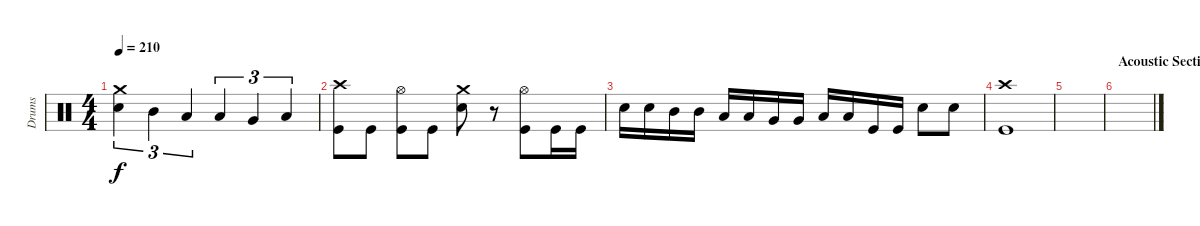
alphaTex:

\track ("Drums" "Drums") {instrument percussion}
\staff {score}
\articulation defaults
\ts (4 4)
\tempo 210
\clef neutral
\ks c
("Crash medium (hit)" "Snare (hit) 2").4{tu (3 2) dy f} "Mid Tom (hit)".4{tu (3 2)} "Low Tom (hit)".4{tu (3 2)} "Low Tom (hit)".4{tu (3 2)} "Very Low Tom (hit)".4{tu (3 2)} "Low Floor Tom (hit)".4{tu (3 2)} |
("Crash high (hit)" "Kick (hit)").8 "Kick (hit)".8 ("Hi-Hat (open)" "Kick (hit)").8 "Kick (hit)".8 ("Crash medium (hit)" "Snare (hit) 2").8 r.8 ("Hi-Hat (open)" "Kick (hit)").8 "Kick (hit)".16 "Kick (hit)".16 |
"Snare (hit) 2".16 "Snare (hit) 2".16 "Mid Tom (hit)".16 "Mid Tom (hit)".16 "Low Tom (hit)".16 "Low Tom (hit)".16 "Very Low Tom (hit)".16 "Very Low Tom (hit)".16 "Low Floor Tom (hit)".16 "Low Floor Tom (hit)".16 "Kick (hit)".16 "Kick (hit)".16 "Snare (hit) 2".8 "Snare (hit) 2".8 |
("Crash high (hit)" "Kick (hit)").1 |
|
\section ("" "Acoustic Section")
